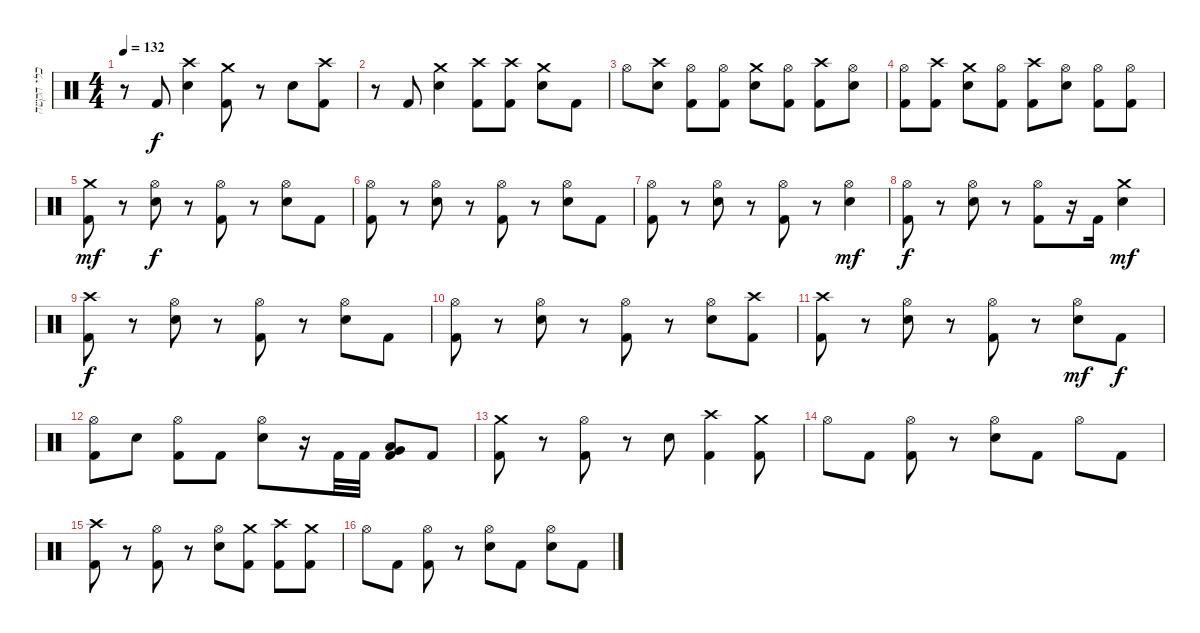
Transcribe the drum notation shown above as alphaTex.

\track ("כלי הקשה" "כלי הקשה") {instrument percussion}
\staff {score}
\articulation defaults
\ts (4 4)
\tempo 132
\clef neutral
\ks c
r.8{dy f} "Kick (hit) 2".8 ("Crash high (hit)" "Electric Snare (hit)").4 ("Crash medium (hit)" "Kick (hit) 2").8 r.8 "Electric Snare (hit)".8 ("Crash high (hit)" "Kick (hit) 2").8 |
r.8 "Kick (hit) 2".8 ("Crash medium (hit)" "Electric Snare (hit)").4 ("Crash high (hit)" "Kick (hit) 2").8 ("Crash high (hit)" "Kick (hit) 2").8 ("Crash medium (hit)" "Electric Snare (hit)").8 "Kick (hit) 2".8 |
"Hi-Hat (open)".8 ("Crash high (hit)" "Electric Snare (hit)").8 ("Hi-Hat (open)" "Kick (hit) 2").8 ("Hi-Hat (open)" "Kick (hit) 2").8 ("Crash medium (hit)" "Electric Snare (hit)").8 ("Hi-Hat (open)" "Kick (hit) 2").8 ("Crash high (hit)" "Kick (hit) 2").8 ("Hi-Hat (open)" "Electric Snare (hit)").8 |
("Hi-Hat (open)" "Kick (hit) 2").8 ("Crash high (hit)" "Kick (hit) 2").8 ("Crash medium (hit)" "Electric Snare (hit)").8 ("Hi-Hat (open)" "Kick (hit) 2").8 ("Crash high (hit)" "Kick (hit) 2").8 ("Hi-Hat (open)" "Electric Snare (hit)").8 ("Hi-Hat (open)" "Kick (hit) 2").8 ("Hi-Hat (open)" "Kick (hit) 2").8 |
("Crash medium (hit)" "Kick (hit) 2").8{dy mf} r.8 ("Hi-Hat (open)" "Electric Snare (hit)").8{dy f} r.8 ("Hi-Hat (open)" "Kick (hit) 2").8 r.8 ("Hi-Hat (open)" "Electric Snare (hit)").8 "Kick (hit) 2".8 |
("Hi-Hat (open)" "Kick (hit) 2").8 r.8 ("Hi-Hat (open)" "Electric Snare (hit)").8 r.8 ("Hi-Hat (open)" "Kick (hit) 2").8 r.8 ("Hi-Hat (open)" "Electric Snare (hit)").8 "Kick (hit) 2".8 |
("Hi-Hat (open)" "Kick (hit) 2").8 r.8 ("Hi-Hat (open)" "Electric Snare (hit)").8 r.8 ("Hi-Hat (open)" "Kick (hit) 2").8 r.8 ("Hi-Hat (open)" "Electric Snare (hit)").4{dy mf} |
("Hi-Hat (open)" "Kick (hit) 2").8{dy f} r.8 ("Hi-Hat (open)" "Electric Snare (hit)").8 r.8 ("Hi-Hat (open)" "Kick (hit) 2").8 r.16 "Kick (hit) 2".16 ("Crash medium (hit)" "Electric Snare (hit)").4{dy mf} |
("Crash high (hit)" "Kick (hit) 2").8{dy f} r.8 ("Hi-Hat (open)" "Electric Snare (hit)").8 r.8 ("Hi-Hat (open)" "Kick (hit) 2").8 r.8 ("Hi-Hat (open)" "Electric Snare (hit)").8 "Kick (hit) 2".8 |
("Hi-Hat (open)" "Kick (hit) 2").8 r.8 ("Hi-Hat (open)" "Electric Snare (hit)").8 r.8 ("Hi-Hat (open)" "Kick (hit) 2").8 r.8 ("Hi-Hat (open)" "Electric Snare (hit)").8 ("Crash high (hit)" "Kick (hit) 2").8 |
("Crash high (hit)" "Kick (hit) 2").8 r.8 ("Hi-Hat (open)" "Electric Snare (hit)").8 r.8 ("Hi-Hat (open)" "Kick (hit) 2").8 r.8 ("Hi-Hat (open)" "Electric Snare (hit)").8{dy mf} "Kick (hit) 2".8{dy f} |
("Hi-Hat (open)" "Kick (hit) 2").8 "Electric Snare (hit)".8 ("Hi-Hat (open)" "Kick (hit) 2").8 "Kick (hit) 2".8 ("Hi-Hat (open)" "Electric Snare (hit)").8 r.16 "Kick (hit) 2".32 "Kick (hit) 2".32 ("Very Low Tom (hit)" "Low Floor Tom (hit)" "Kick (hit) 2").8 "Kick (hit) 2".8 |
("Crash medium (hit)" "Kick (hit) 2").8 r.8 ("Hi-Hat (open)" "Kick (hit) 2").8 r.8 "Electric Snare (hit)".8 ("Crash high (hit)" "Kick (hit) 2").4 ("Crash medium (hit)" "Kick (hit) 2").8 |
"Hi-Hat (open)".8 "Kick (hit) 2".8 ("Hi-Hat (open)" "Kick (hit) 2").8 r.8 ("Hi-Hat (open)" "Electric Snare (hit)").8 "Kick (hit) 2".8 "Hi-Hat (open)".8 "Kick (hit) 2".8 |
("Crash high (hit)" "Kick (hit) 2").8 r.8 ("Hi-Hat (open)" "Kick (hit) 2").8 r.8 ("Hi-Hat (open)" "Electric Snare (hit)").8 ("Crash medium (hit)" "Kick (hit) 2").8 ("Crash high (hit)" "Kick (hit) 2").8 ("Crash medium (hit)" "Kick (hit) 2").8 |
"Hi-Hat (open)".8 "Kick (hit) 2".8 ("Hi-Hat (open)" "Kick (hit) 2").8 r.8 ("Hi-Hat (open)" "Electric Snare (hit)").8 "Kick (hit) 2".8 ("Hi-Hat (open)" "Electric Snare (hit)").8 "Kick (hit) 2".8
